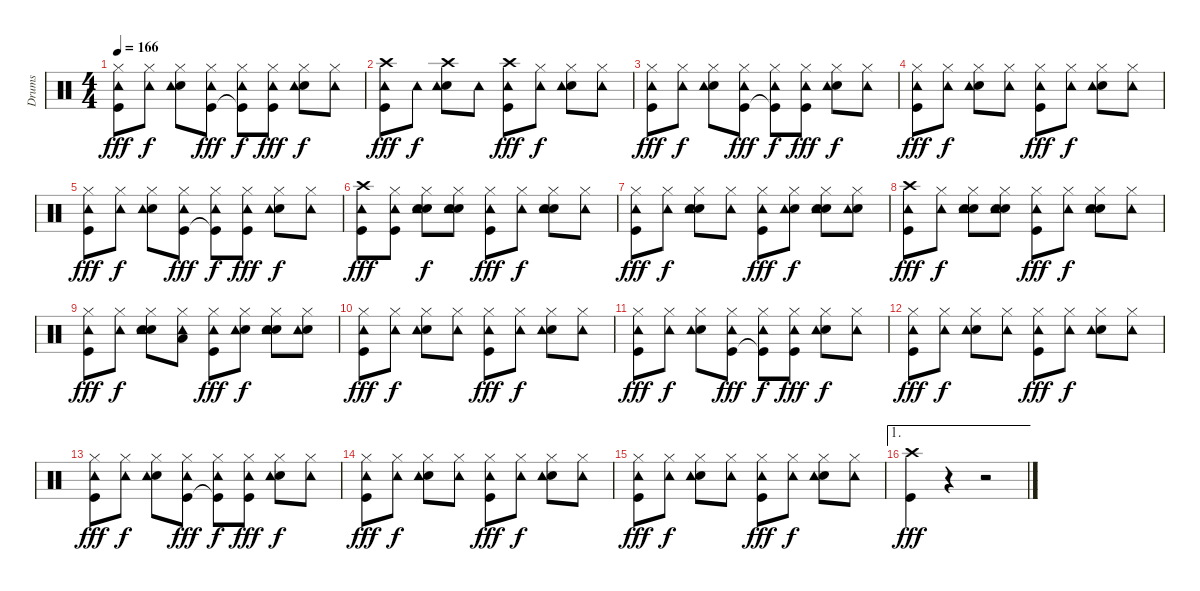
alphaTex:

\track ("Drums" "Drums") {instrument percussion}
\staff {score}
\articulation defaults
\ts (4 4)
\tempo 166
\clef neutral
\ks c
("Hi-Hat (closed)" "Tambourine (hit)" "Kick (hit)").8{dy fff} ("Hi-Hat (closed)" "Tambourine (hit)").8{dy f} ("Hi-Hat (closed)" "Snare (hit) 2" "Tambourine (hit)").8 ("Hi-Hat (closed)" "Tambourine (hit)" "Kick (hit)").8{dy fff} ("Hi-Hat (closed)" "Tambourine (hit)" "Kick (hit)"{t}).8{dy f} ("Hi-Hat (closed)" "Tambourine (hit)" "Kick (hit)").8{dy fff} ("Hi-Hat (closed)" "Snare (hit) 2" "Tambourine (hit)").8{dy f} ("Hi-Hat (closed)" "Tambourine (hit)").8 |
("Crash high (hit)" "Tambourine (hit)" "Kick (hit)").8{dy fff} "Tambourine (hit)".8{dy f} ("Crash high (hit)" "Snare (hit) 2" "Tambourine (hit)").8 "Tambourine (hit)".8 ("Crash high (hit)" "Tambourine (hit)" "Kick (hit)").8{dy fff} ("Hi-Hat (closed)" "Tambourine (hit)").8{dy f} ("Hi-Hat (closed)" "Snare (hit) 2" "Tambourine (hit)").8 ("Hi-Hat (closed)" "Tambourine (hit)").8 |
("Hi-Hat (closed)" "Tambourine (hit)" "Kick (hit)").8{dy fff} ("Hi-Hat (closed)" "Tambourine (hit)").8{dy f} ("Hi-Hat (closed)" "Snare (hit) 2" "Tambourine (hit)").8 ("Hi-Hat (closed)" "Tambourine (hit)" "Kick (hit)").8{dy fff} ("Hi-Hat (closed)" "Tambourine (hit)" "Kick (hit)"{t}).8{dy f} ("Hi-Hat (closed)" "Tambourine (hit)" "Kick (hit)").8{dy fff} ("Hi-Hat (closed)" "Snare (hit) 2" "Tambourine (hit)").8{dy f} ("Hi-Hat (closed)" "Tambourine (hit)").8 |
("Hi-Hat (closed)" "Tambourine (hit)" "Kick (hit)").8{dy fff} ("Hi-Hat (closed)" "Tambourine (hit)").8{dy f} ("Hi-Hat (closed)" "Snare (hit) 2" "Tambourine (hit)").8 ("Hi-Hat (closed)" "Tambourine (hit)").8 ("Hi-Hat (closed)" "Tambourine (hit)" "Kick (hit)").8{dy fff} ("Hi-Hat (closed)" "Tambourine (hit)").8{dy f} ("Hi-Hat (closed)" "Snare (hit) 2" "Tambourine (hit)").8 ("Hi-Hat (closed)" "Tambourine (hit)").8 |
("Hi-Hat (closed)" "Tambourine (hit)" "Kick (hit)").8{dy fff} ("Hi-Hat (closed)" "Tambourine (hit)").8{dy f} ("Hi-Hat (closed)" "Snare (hit) 2" "Tambourine (hit)").8 ("Hi-Hat (closed)" "Tambourine (hit)" "Kick (hit)").8{dy fff} ("Hi-Hat (closed)" "Tambourine (hit)" "Kick (hit)"{t}).8{dy f} ("Hi-Hat (closed)" "Tambourine (hit)" "Kick (hit)").8{dy fff} ("Hi-Hat (closed)" "Snare (hit) 2" "Tambourine (hit)").8{dy f} ("Hi-Hat (closed)" "Tambourine (hit)").8 |
("Crash high (hit)" "Tambourine (hit)" "Kick (hit)").8{dy fff} ("Hi-Hat (closed)" "Tambourine (hit)" "Kick (hit)").8 ("Hi-Hat (closed)" "Hand Clap (hit)" "Snare (hit) 2" "Tambourine (hit)").8{dy f} ("Hi-Hat (closed)" "Hand Clap (hit)" "Snare (hit) 2" "Tambourine (hit)").8 ("Hi-Hat (closed)" "Tambourine (hit)" "Kick (hit)").8{dy fff} ("Hi-Hat (closed)" "Tambourine (hit)").8{dy f} ("Hi-Hat (closed)" "Hand Clap (hit)" "Snare (hit) 2" "Tambourine (hit)").8 ("Hi-Hat (closed)" "Tambourine (hit)").8 |
("Hi-Hat (closed)" "Tambourine (hit)" "Kick (hit)").8{dy fff} ("Hi-Hat (closed)" "Tambourine (hit)").8{dy f} ("Hi-Hat (closed)" "Hand Clap (hit)" "Snare (hit) 2" "Tambourine (hit)").8 ("Hi-Hat (closed)" "Tambourine (hit)").8 ("Hi-Hat (closed)" "Tambourine (hit)" "Kick (hit)").8{dy fff} ("Hi-Hat (closed)" "Snare (hit) 2" "Tambourine (hit)").8{dy f} ("Hi-Hat (closed)" "Hand Clap (hit)" "Snare (hit) 2" "Tambourine (hit)").8 ("Hi-Hat (closed)" "Snare (hit) 2" "Tambourine (hit)").8 |
("Crash high (hit)" "Tambourine (hit)" "Kick (hit)").8{dy fff} ("Hi-Hat (closed)" "Tambourine (hit)").8{dy f} ("Hi-Hat (closed)" "Hand Clap (hit)" "Snare (hit) 2" "Tambourine (hit)").8 ("Hi-Hat (closed)" "Hand Clap (hit)" "Snare (hit) 2" "Tambourine (hit)").8 ("Hi-Hat (closed)" "Tambourine (hit)" "Kick (hit)").8{dy fff} ("Hi-Hat (closed)" "Tambourine (hit)").8{dy f} ("Hi-Hat (closed)" "Hand Clap (hit)" "Snare (hit) 2" "Tambourine (hit)").8 ("Hi-Hat (closed)" "Tambourine (hit)").8 |
("Hi-Hat (closed)" "Tambourine (hit)" "Kick (hit)").8{dy fff} ("Hi-Hat (closed)" "Tambourine (hit)").8{dy f} ("Hi-Hat (closed)" "Hand Clap (hit)" "Snare (hit) 2" "Tambourine (hit)").8 ("Hi-Hat (closed)" "Tambourine (hit)" "Low Floor Tom (hit)").8 ("Hi-Hat (closed)" "Tambourine (hit)" "Kick (hit)").8{dy fff} ("Hi-Hat (closed)" "Snare (hit) 2" "Tambourine (hit)").8{dy f} ("Hi-Hat (closed)" "Hand Clap (hit)" "Snare (hit) 2" "Tambourine (hit)").8 ("Hi-Hat (closed)" "Snare (hit) 2" "Tambourine (hit)").8 |
("Hi-Hat (closed)" "Tambourine (hit)" "Kick (hit)").8{dy fff} ("Hi-Hat (closed)" "Tambourine (hit)").8{dy f} ("Hi-Hat (closed)" "Snare (hit) 2" "Tambourine (hit)").8 ("Hi-Hat (closed)" "Tambourine (hit)").8 ("Hi-Hat (closed)" "Tambourine (hit)" "Kick (hit)").8{dy fff} ("Hi-Hat (closed)" "Tambourine (hit)").8{dy f} ("Hi-Hat (closed)" "Snare (hit) 2" "Tambourine (hit)").8 ("Hi-Hat (closed)" "Tambourine (hit)").8 |
("Hi-Hat (closed)" "Tambourine (hit)" "Kick (hit)").8{dy fff} ("Hi-Hat (closed)" "Tambourine (hit)").8{dy f} ("Hi-Hat (closed)" "Snare (hit) 2" "Tambourine (hit)").8 ("Hi-Hat (closed)" "Tambourine (hit)" "Kick (hit)").8{dy fff} ("Hi-Hat (closed)" "Tambourine (hit)" "Kick (hit)"{t}).8{dy f} ("Hi-Hat (closed)" "Tambourine (hit)" "Kick (hit)").8{dy fff} ("Hi-Hat (closed)" "Snare (hit) 2" "Tambourine (hit)").8{dy f} ("Hi-Hat (closed)" "Tambourine (hit)").8 |
("Hi-Hat (closed)" "Tambourine (hit)" "Kick (hit)").8{dy fff} ("Hi-Hat (closed)" "Tambourine (hit)").8{dy f} ("Hi-Hat (closed)" "Snare (hit) 2" "Tambourine (hit)").8 ("Hi-Hat (closed)" "Tambourine (hit)").8 ("Hi-Hat (closed)" "Tambourine (hit)" "Kick (hit)").8{dy fff} ("Hi-Hat (closed)" "Tambourine (hit)").8{dy f} ("Hi-Hat (closed)" "Snare (hit) 2" "Tambourine (hit)").8 ("Hi-Hat (closed)" "Tambourine (hit)").8 |
("Hi-Hat (closed)" "Tambourine (hit)" "Kick (hit)").8{dy fff} ("Hi-Hat (closed)" "Tambourine (hit)").8{dy f} ("Hi-Hat (closed)" "Snare (hit) 2" "Tambourine (hit)").8 ("Hi-Hat (closed)" "Tambourine (hit)" "Kick (hit)").8{dy fff} ("Hi-Hat (closed)" "Tambourine (hit)" "Kick (hit)"{t}).8{dy f} ("Hi-Hat (closed)" "Tambourine (hit)" "Kick (hit)").8{dy fff} ("Hi-Hat (closed)" "Snare (hit) 2" "Tambourine (hit)").8{dy f} ("Hi-Hat (closed)" "Tambourine (hit)").8 |
("Hi-Hat (closed)" "Tambourine (hit)" "Kick (hit)").8{dy fff} ("Hi-Hat (closed)" "Tambourine (hit)").8{dy f} ("Hi-Hat (closed)" "Snare (hit) 2" "Tambourine (hit)").8 ("Hi-Hat (closed)" "Tambourine (hit)").8 ("Hi-Hat (closed)" "Tambourine (hit)" "Kick (hit)").8{dy fff} ("Hi-Hat (closed)" "Tambourine (hit)").8{dy f} ("Hi-Hat (closed)" "Snare (hit) 2" "Tambourine (hit)").8 ("Hi-Hat (closed)" "Tambourine (hit)").8 |
("Hi-Hat (closed)" "Tambourine (hit)" "Kick (hit)").8{dy fff} ("Hi-Hat (closed)" "Tambourine (hit)").8{dy f} ("Hi-Hat (closed)" "Snare (hit) 2" "Tambourine (hit)").8 ("Hi-Hat (closed)" "Tambourine (hit)").8 ("Hi-Hat (closed)" "Tambourine (hit)" "Kick (hit)").8{dy fff} ("Hi-Hat (closed)" "Tambourine (hit)").8{dy f} ("Hi-Hat (closed)" "Snare (hit) 2" "Tambourine (hit)").8 ("Hi-Hat (closed)" "Tambourine (hit)").8 |
\ae 1
("Crash high (hit)" "Kick (hit)").4{dy fff} r.4 r.2
